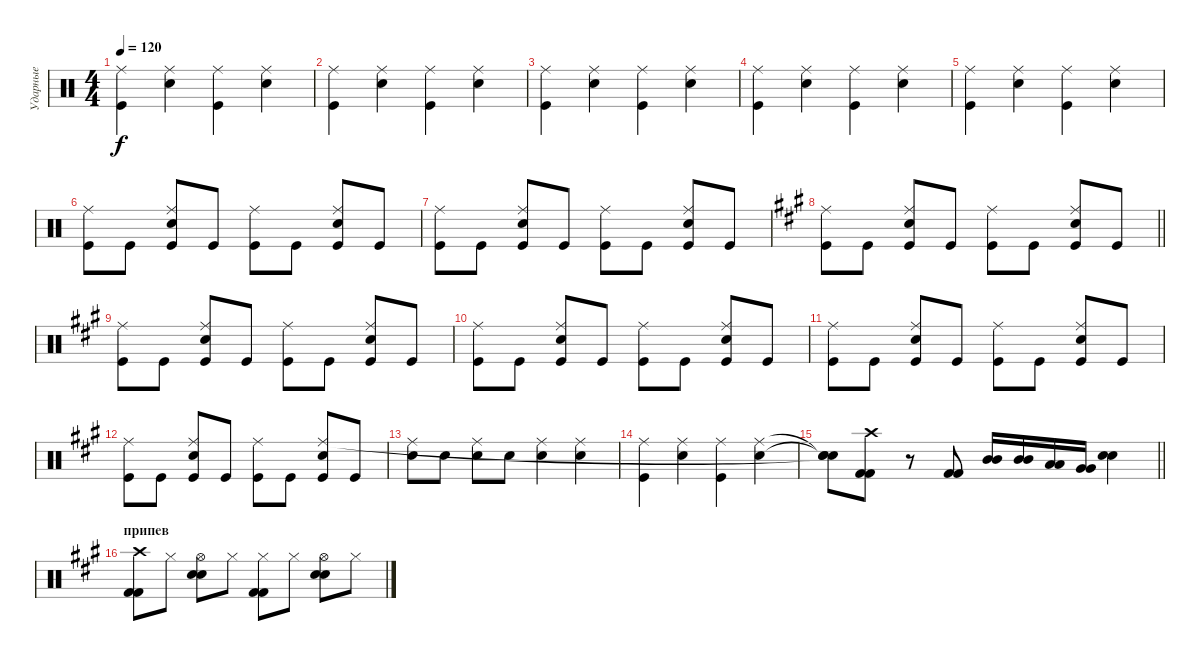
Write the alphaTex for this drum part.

\track ("Ударные" "Ударные") {instrument percussion}
\staff {score}
\articulation defaults
\ts (4 4)
\tempo 120
\clef neutral
\ks c
("Kick (hit)" "Ride (middle)").4{dy f} ("Snare (hit) 2" "Ride (middle)").4 ("Kick (hit)" "Ride (middle)").4 ("Snare (hit) 2" "Ride (middle)").4 |
("Kick (hit)" "Ride (middle)").4 ("Snare (hit) 2" "Ride (middle)").4 ("Kick (hit)" "Ride (middle)").4 ("Snare (hit) 2" "Ride (middle)").4 |
("Kick (hit)" "Ride (middle)").4 ("Snare (hit) 2" "Ride (middle)").4 ("Kick (hit)" "Ride (middle)").4 ("Snare (hit) 2" "Ride (middle)").4 |
("Kick (hit)" "Ride (middle)").4 ("Snare (hit) 2" "Ride (middle)").4 ("Kick (hit)" "Ride (middle)").4 ("Snare (hit) 2" "Ride (middle)").4 |
("Kick (hit)" "Ride (middle)").4 ("Snare (hit) 2" "Ride (middle)").4 ("Kick (hit)" "Ride (middle)").4 ("Snare (hit) 2" "Ride (middle)").4 |
("Kick (hit)" "Ride (middle)").8 "Kick (hit)".8 ("Kick (hit)" "Snare (hit) 2" "Ride (middle)").8 "Kick (hit)".8 ("Kick (hit)" "Ride (middle)").8 "Kick (hit)".8 ("Kick (hit)" "Snare (hit) 2" "Ride (middle)").8 "Kick (hit)".8 |
("Kick (hit)" "Ride (middle)").8 "Kick (hit)".8 ("Kick (hit)" "Snare (hit) 2" "Ride (middle)").8 "Kick (hit)".8 ("Kick (hit)" "Ride (middle)").8 "Kick (hit)".8 ("Kick (hit)" "Snare (hit) 2" "Ride (middle)").8 "Kick (hit)".8 |
\barLineRight lightlight
\ks f#minor
("Kick (hit)" "Ride (middle)").8 "Kick (hit)".8 ("Kick (hit)" "Snare (hit) 2" "Ride (middle)").8 "Kick (hit)".8 ("Kick (hit)" "Ride (middle)").8 "Kick (hit)".8 ("Kick (hit)" "Snare (hit) 2" "Ride (middle)").8 "Kick (hit)".8 |
("Kick (hit)" "Ride (middle)").8 "Kick (hit)".8 ("Kick (hit)" "Snare (hit) 2" "Ride (middle)").8 "Kick (hit)".8 ("Kick (hit)" "Ride (middle)").8 "Kick (hit)".8 ("Kick (hit)" "Snare (hit) 2" "Ride (middle)").8 "Kick (hit)".8 |
("Kick (hit)" "Ride (middle)").8 "Kick (hit)".8 ("Kick (hit)" "Snare (hit) 2" "Ride (middle)").8 "Kick (hit)".8 ("Kick (hit)" "Ride (middle)").8 "Kick (hit)".8 ("Kick (hit)" "Snare (hit) 2" "Ride (middle)").8 "Kick (hit)".8 |
("Kick (hit)" "Ride (middle)").8 "Kick (hit)".8 ("Kick (hit)" "Snare (hit) 2" "Ride (middle)").8 "Kick (hit)".8 ("Kick (hit)" "Ride (middle)").8 "Kick (hit)".8 ("Kick (hit)" "Snare (hit) 2" "Ride (middle)").8 "Kick (hit)".8 |
("Kick (hit)" "Ride (middle)").8 "Kick (hit)".8 ("Kick (hit)" "Snare (hit) 2" "Ride (middle)").8 "Kick (hit)".8 ("Kick (hit)" "Ride (middle)").8 "Kick (hit)".8 ("Kick (hit)" "Snare (hit) 2" "Ride (middle)").8 "Kick (hit)".8 |
("Snare (hit) 2" "Ride (middle)").8 "Snare (hit) 2".8 ("Snare (hit) 2" "Ride (middle)").8 "Snare (hit) 2".8 ("Snare (hit) 2" "Ride (middle)").4 ("Snare (hit) 2" "Ride (middle)").4 |
("Kick (hit)" "Ride (middle)").4 ("Snare (hit) 2" "Ride (middle)").4 ("Kick (hit)" "Ride (middle)").4 ("Snare (hit) 2" "Ride (middle)").4 |
\barLineRight lightlight
("Snare (hit)"{t} "Snare (hit)"{t} "Snare (hit)"{t}).8 ("Crash high (hit)" "Kick (hit) 2" "Kick (hit) 2").8 r.8 ("Kick (hit) 2" "Kick (hit) 2").8 ("Mid Tom (hit)" "Mid Tom (hit)").16 ("Mid Tom (hit)" "Mid Tom (hit)").16 ("Low Tom (hit)" "Low Tom (hit)").16 ("Very Low Tom (hit)" "Very Low Tom (hit)").16 ("Electric Snare (hit)" "Electric Snare (hit)").4 |
\section ("" "припев")
("Crash high (hit)" "Kick (hit) 2" "Kick (hit) 2").8 "Hi-Hat (closed)".8 ("Hi-Hat (open)" "Electric Snare (hit)" "Electric Snare (hit)").8 "Hi-Hat (closed)".8 ("Hi-Hat (closed)" "Kick (hit) 2" "Kick (hit) 2").8 "Hi-Hat (closed)".8 ("Hi-Hat (open)" "Electric Snare (hit)" "Electric Snare (hit)").8 "Hi-Hat (closed)".8
